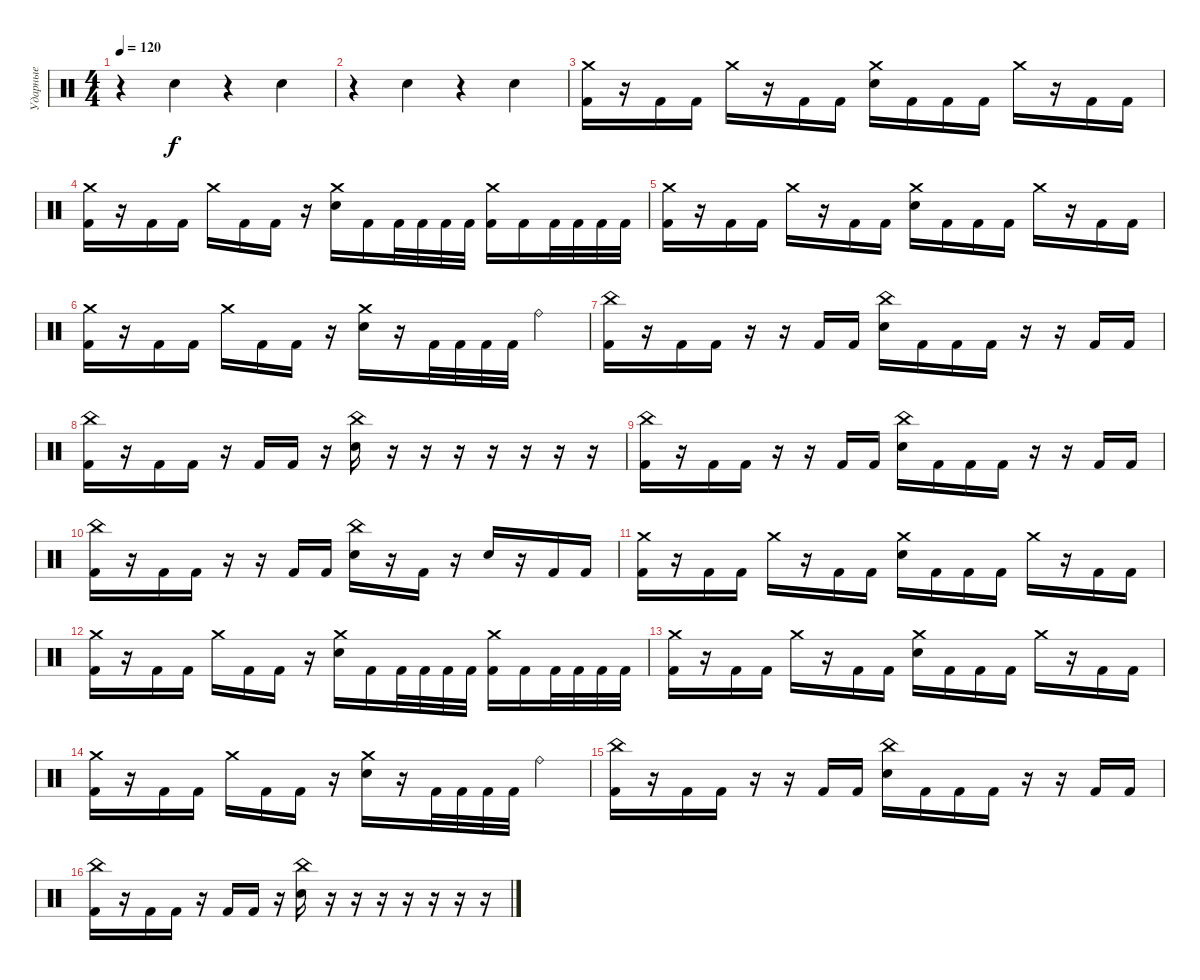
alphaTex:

\track ("Ударные" "Ударные") {instrument percussion}
\staff {score}
\articulation defaults
\ts (4 4)
\tempo 120
\clef neutral
\ks c
r.4{dy f} "Hand Clap (hit)".4 r.4 "Hand Clap (hit)".4 |
r.4 "Hand Clap (hit)".4 r.4 "Hand Clap (hit)".4 |
("Crash medium (hit)" "Kick (hit) 2").16 r.16 "Kick (hit) 2".16 "Kick (hit) 2".16 "Crash medium (hit)".16 r.16 "Kick (hit) 2".16 "Kick (hit) 2".16 ("Crash medium (hit)" "Electric Snare (hit)").16 "Kick (hit) 2".16 "Kick (hit) 2".16 "Kick (hit) 2".16 "Crash medium (hit)".16 r.16 "Kick (hit) 2".16 "Kick (hit) 2".16 |
("Crash medium (hit)" "Kick (hit) 2").16 r.16 "Kick (hit) 2".16 "Kick (hit) 2".16 "Crash medium (hit)".16 "Kick (hit) 2".16 "Kick (hit) 2".16 r.16 ("Crash medium (hit)" "Electric Snare (hit)").16 "Kick (hit) 2".16 "Kick (hit) 2".32 "Kick (hit) 2".32 "Kick (hit) 2".32 "Kick (hit) 2".32 ("Crash medium (hit)" "Kick (hit) 2").16 "Kick (hit) 2".16 "Kick (hit) 2".32 "Kick (hit) 2".32 "Kick (hit) 2".32 "Kick (hit) 2".32 |
("Crash medium (hit)" "Kick (hit) 2").16 r.16 "Kick (hit) 2".16 "Kick (hit) 2".16 "Crash medium (hit)".16 r.16 "Kick (hit) 2".16 "Kick (hit) 2".16 ("Crash medium (hit)" "Electric Snare (hit)").16 "Kick (hit) 2".16 "Kick (hit) 2".16 "Kick (hit) 2".16 "Crash medium (hit)".16 r.16 "Kick (hit) 2".16 "Kick (hit) 2".16 |
("Crash medium (hit)" "Kick (hit) 2").16 r.16 "Kick (hit) 2".16 "Kick (hit) 2".16 "Crash medium (hit)".16 "Kick (hit) 2".16 "Kick (hit) 2".16 r.16 ("Crash medium (hit)" "Electric Snare (hit)").16 r.16 "Kick (hit) 2".32 "Kick (hit) 2".32 "Kick (hit) 2".32 "Kick (hit) 2".32 "Ride (bell)".4 |
("China (hit)" "Kick (hit) 2").16 r.16 "Kick (hit) 2".16 "Kick (hit) 2".16 r.16 r.16 "Kick (hit) 2".16 "Kick (hit) 2".16 ("China (hit)" "Electric Snare (hit)").16 "Kick (hit) 2".16 "Kick (hit) 2".16 "Kick (hit) 2".16 r.16 r.16 "Kick (hit) 2".16 "Kick (hit) 2".16 |
("China (hit)" "Kick (hit) 2").16 r.16 "Kick (hit) 2".16 "Kick (hit) 2".16 r.16 "Kick (hit) 2".16 "Kick (hit) 2".16 r.16 ("China (hit)" "Electric Snare (hit)").16 r.16 r.16 r.16 r.16 r.16 r.16 r.16 |
("China (hit)" "Kick (hit) 2").16 r.16 "Kick (hit) 2".16 "Kick (hit) 2".16 r.16 r.16 "Kick (hit) 2".16 "Kick (hit) 2".16 ("China (hit)" "Electric Snare (hit)").16 "Kick (hit) 2".16 "Kick (hit) 2".16 "Kick (hit) 2".16 r.16 r.16 "Kick (hit) 2".16 "Kick (hit) 2".16 |
("China (hit)" "Kick (hit) 2").16 r.16 "Kick (hit) 2".16 "Kick (hit) 2".16 r.16 r.16 "Kick (hit) 2".16 "Kick (hit) 2".16 ("China (hit)" "Electric Snare (hit)").16 r.16 "Kick (hit) 2".16 r.16 "Electric Snare (hit)".16 r.16 "Kick (hit) 2".16 "Kick (hit) 2".16 |
("Crash medium (hit)" "Kick (hit) 2").16 r.16 "Kick (hit) 2".16 "Kick (hit) 2".16 "Crash medium (hit)".16 r.16 "Kick (hit) 2".16 "Kick (hit) 2".16 ("Crash medium (hit)" "Electric Snare (hit)").16 "Kick (hit) 2".16 "Kick (hit) 2".16 "Kick (hit) 2".16 "Crash medium (hit)".16 r.16 "Kick (hit) 2".16 "Kick (hit) 2".16 |
("Crash medium (hit)" "Kick (hit) 2").16 r.16 "Kick (hit) 2".16 "Kick (hit) 2".16 "Crash medium (hit)".16 "Kick (hit) 2".16 "Kick (hit) 2".16 r.16 ("Crash medium (hit)" "Electric Snare (hit)").16 "Kick (hit) 2".16 "Kick (hit) 2".32 "Kick (hit) 2".32 "Kick (hit) 2".32 "Kick (hit) 2".32 ("Crash medium (hit)" "Kick (hit) 2").16 "Kick (hit) 2".16 "Kick (hit) 2".32 "Kick (hit) 2".32 "Kick (hit) 2".32 "Kick (hit) 2".32 |
("Crash medium (hit)" "Kick (hit) 2").16 r.16 "Kick (hit) 2".16 "Kick (hit) 2".16 "Crash medium (hit)".16 r.16 "Kick (hit) 2".16 "Kick (hit) 2".16 ("Crash medium (hit)" "Electric Snare (hit)").16 "Kick (hit) 2".16 "Kick (hit) 2".16 "Kick (hit) 2".16 "Crash medium (hit)".16 r.16 "Kick (hit) 2".16 "Kick (hit) 2".16 |
("Crash medium (hit)" "Kick (hit) 2").16 r.16 "Kick (hit) 2".16 "Kick (hit) 2".16 "Crash medium (hit)".16 "Kick (hit) 2".16 "Kick (hit) 2".16 r.16 ("Crash medium (hit)" "Electric Snare (hit)").16 r.16 "Kick (hit) 2".32 "Kick (hit) 2".32 "Kick (hit) 2".32 "Kick (hit) 2".32 "Ride (bell)".4 |
("China (hit)" "Kick (hit) 2").16 r.16 "Kick (hit) 2".16 "Kick (hit) 2".16 r.16 r.16 "Kick (hit) 2".16 "Kick (hit) 2".16 ("China (hit)" "Electric Snare (hit)").16 "Kick (hit) 2".16 "Kick (hit) 2".16 "Kick (hit) 2".16 r.16 r.16 "Kick (hit) 2".16 "Kick (hit) 2".16 |
("China (hit)" "Kick (hit) 2").16 r.16 "Kick (hit) 2".16 "Kick (hit) 2".16 r.16 "Kick (hit) 2".16 "Kick (hit) 2".16 r.16 ("China (hit)" "Electric Snare (hit)").16 r.16 r.16 r.16 r.16 r.16 r.16 r.16
